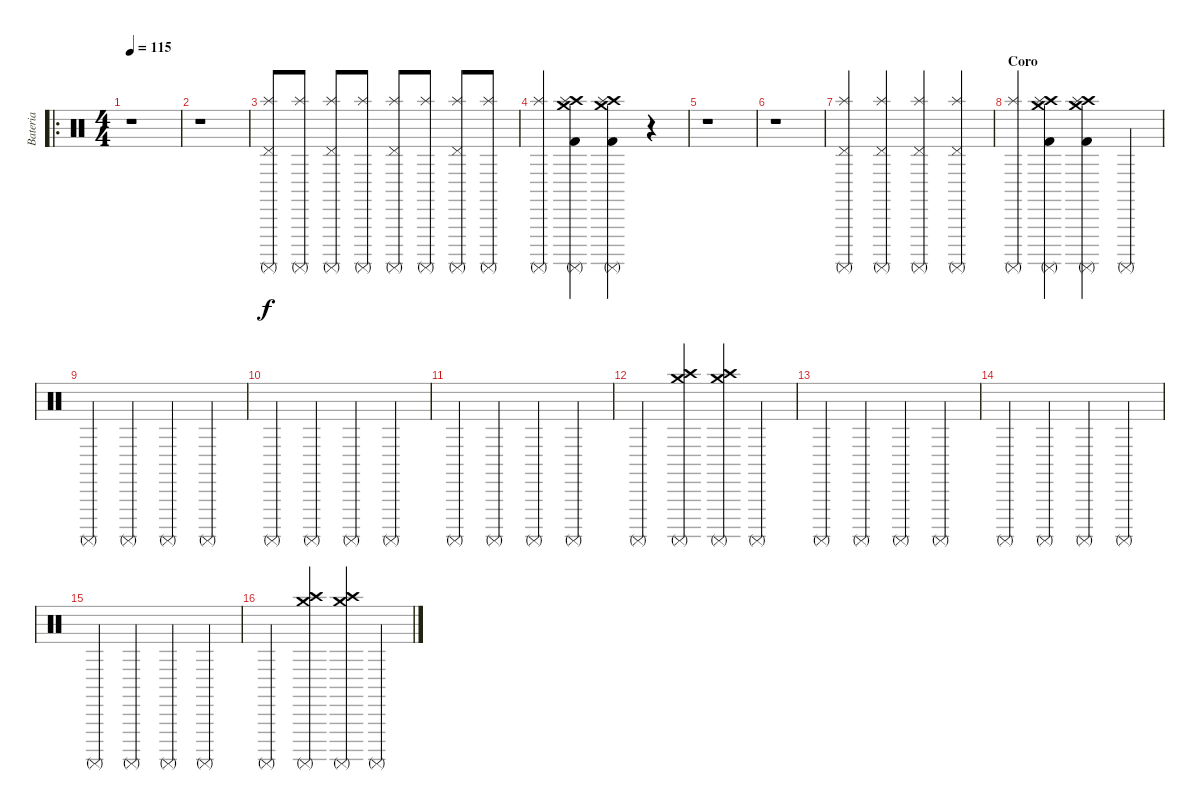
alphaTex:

\track ("Bateria" "Bateria") {instrument percussion}
\staff {score}
\articulation defaults
\ro
\ts (4 4)
\tempo 115
\clef neutral
\ks c
r.1{dy f} |
r.1 |
("Pedal Hi-Hat (hit)" "Splash (hit)" "Surdo (mute)").8 ("Splash (hit)" "Surdo (mute)").8 ("Pedal Hi-Hat (hit)" "Splash (hit)" "Surdo (mute)").8 ("Splash (hit)" "Surdo (mute)").8 ("Pedal Hi-Hat (hit)" "Splash (hit)" "Surdo (mute)").8 ("Splash (hit)" "Surdo (mute)").8 ("Pedal Hi-Hat (hit)" "Splash (hit)" "Surdo (mute)").8 ("Splash (hit)" "Surdo (mute)").8 |
("Splash (hit)" "Surdo (mute)").4 ("Crash high (hit)" "Kick (hit) 2" "Crash medium (hit)" "Splash (hit)" "Surdo (mute)").4 ("Crash high (hit)" "Kick (hit) 2" "Crash medium (hit)" "Splash (hit)" "Surdo (mute)").4 r.4 |
r.1 |
r.1 |
("Pedal Hi-Hat (hit)" "Splash (hit)" "Surdo (mute)").4 ("Pedal Hi-Hat (hit)" "Splash (hit)" "Surdo (mute)").4 ("Pedal Hi-Hat (hit)" "Splash (hit)" "Surdo (mute)").4 ("Pedal Hi-Hat (hit)" "Splash (hit)" "Surdo (mute)").4 |
\section ("" "Coro")
("Splash (hit)" "Surdo (mute)").4 ("Crash high (hit)" "Kick (hit) 2" "Crash medium (hit)" "Splash (hit)" "Surdo (mute)").4 ("Crash high (hit)" "Kick (hit) 2" "Crash medium (hit)" "Splash (hit)" "Surdo (mute)").4 "Surdo (mute)".4 |
"Surdo (mute)".4 "Surdo (mute)".4 "Surdo (mute)".4 "Surdo (mute)".4 |
"Surdo (mute)".4 "Surdo (mute)".4 "Surdo (mute)".4 "Surdo (mute)".4 |
"Surdo (mute)".4 "Surdo (mute)".4 "Surdo (mute)".4 "Surdo (mute)".4 |
"Surdo (mute)".4 ("Crash high (hit)" "Crash medium (hit)" "Surdo (mute)").4 ("Crash high (hit)" "Crash medium (hit)" "Surdo (mute)").4 "Surdo (mute)".4 |
"Surdo (mute)".4 "Surdo (mute)".4 "Surdo (mute)".4 "Surdo (mute)".4 |
"Surdo (mute)".4 "Surdo (mute)".4 "Surdo (mute)".4 "Surdo (mute)".4 |
"Surdo (mute)".4 "Surdo (mute)".4 "Surdo (mute)".4 "Surdo (mute)".4 |
"Surdo (mute)".4 ("Crash high (hit)" "Crash medium (hit)" "Surdo (mute)").4 ("Crash high (hit)" "Crash medium (hit)" "Surdo (mute)").4 "Surdo (mute)".4
